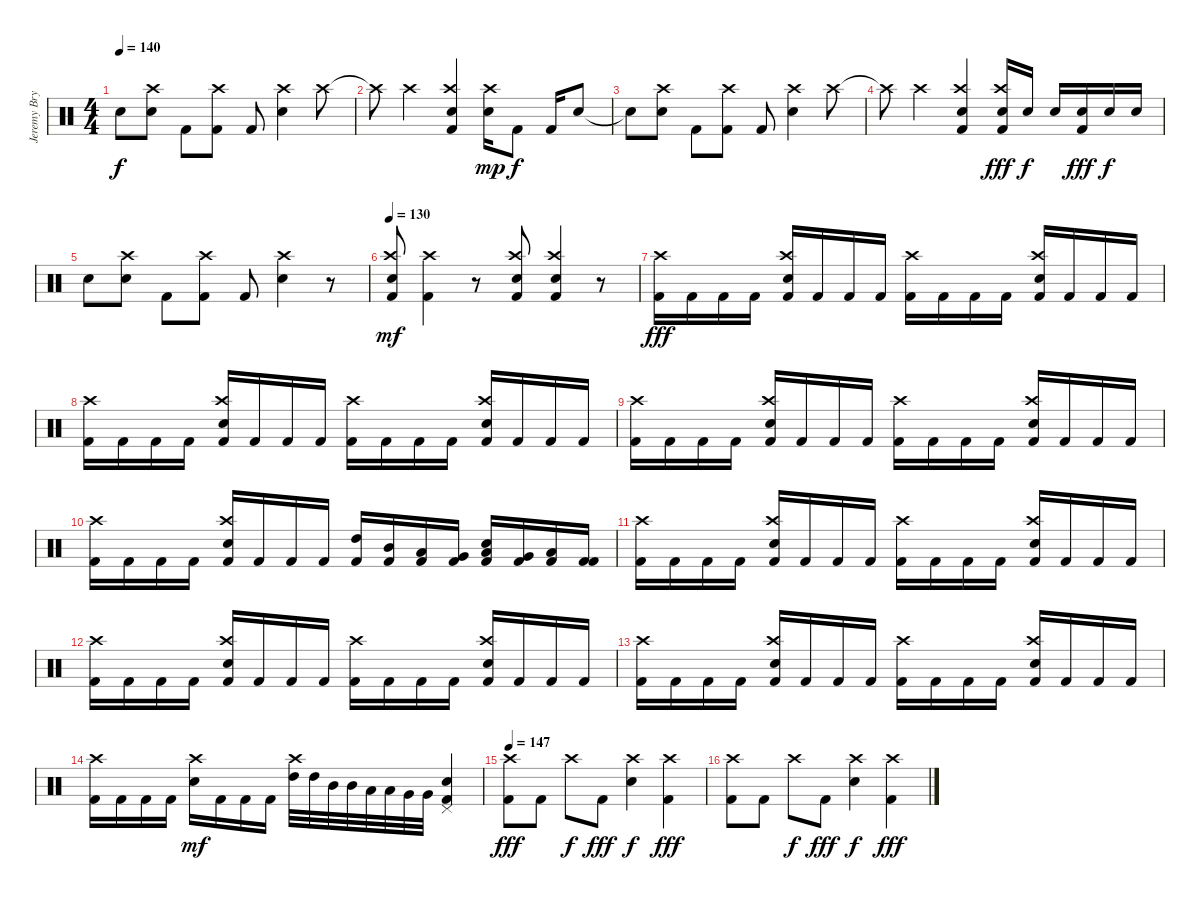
\track ("Jeremy Bryan - Drums" "Jeremy Bry") {instrument percussion}
\staff {score}
\articulation defaults
\ts (4 4)
\tempo 140
\clef neutral
\ks c "Electric Snare (hit)".8{dy f}
("Crash high (hit)" "Electric Snare (hit)").8 "Kick (hit) 2".8 ("Crash high (hit)" "Kick (hit) 2").8 "Kick (hit) 2".8 ("Crash high (hit)" "Electric Snare (hit)").4 "Crash high (hit)".8 |
"Crash high (hit)"{t}.8 "Crash high (hit)".4 ("Crash high (hit)" "Electric Snare (hit)" "Kick (hit) 2").4 ("Crash high (hit)" "Electric Snare (hit)").16{dy mp} "Kick (hit) 2".8{dy f} "Kick (hit) 2".16 "Electric Snare (hit)".8 |
"Electric Snare (hit)"{t}.8 ("Crash high (hit)" "Electric Snare (hit)").8 "Kick (hit) 2".8 ("Crash high (hit)" "Kick (hit) 2").8 "Kick (hit) 2".8 ("Crash high (hit)" "Electric Snare (hit)").4 "Crash high (hit)".8 |
"Crash high (hit)"{t}.8 "Crash high (hit)".4 ("Crash high (hit)" "Electric Snare (hit)" "Kick (hit) 2").4 ("Crash high (hit)" "Electric Snare (hit)" "Kick (hit) 2").16{dy fff} "Electric Snare (hit)".16{dy f} "Electric Snare (hit)".16 ("Electric Snare (hit)" "Kick (hit) 2").16{dy fff} "Electric Snare (hit)".16{dy f} "Electric Snare (hit)".16 |
"Electric Snare (hit)".8 ("Crash high (hit)" "Electric Snare (hit)").8 "Kick (hit) 2".8 ("Crash high (hit)" "Kick (hit) 2").8 "Kick (hit) 2".8 ("Crash high (hit)" "Electric Snare (hit)").4 r.8 |
\tempo 130
("Crash high (hit)" "Electric Snare (hit)" "Kick (hit) 2").8{dy mf} ("Crash high (hit)" "Kick (hit) 2").4 r.8 ("Crash high (hit)" "Electric Snare (hit)" "Kick (hit) 2").8 ("Crash high (hit)" "Electric Snare (hit)" "Kick (hit) 2").4 r.8 |
("Crash high (hit)" "Kick (hit) 2").16{dy fff} "Kick (hit) 2".16 "Kick (hit) 2".16 "Kick (hit) 2".16 ("Crash high (hit)" "Electric Snare (hit)" "Kick (hit) 2").16 "Kick (hit) 2".16 "Kick (hit) 2".16 "Kick (hit) 2".16 ("Crash high (hit)" "Kick (hit) 2").16 "Kick (hit) 2".16 "Kick (hit) 2".16 "Kick (hit) 2".16 ("Crash high (hit)" "Electric Snare (hit)" "Kick (hit) 2").16 "Kick (hit) 2".16 "Kick (hit) 2".16 "Kick (hit) 2".16 |
("Crash high (hit)" "Kick (hit) 2").16 "Kick (hit) 2".16 "Kick (hit) 2".16 "Kick (hit) 2".16 ("Crash high (hit)" "Electric Snare (hit)" "Kick (hit) 2").16 "Kick (hit) 2".16 "Kick (hit) 2".16 "Kick (hit) 2".16 ("Crash high (hit)" "Kick (hit) 2").16 "Kick (hit) 2".16 "Kick (hit) 2".16 "Kick (hit) 2".16 ("Crash high (hit)" "Electric Snare (hit)" "Kick (hit) 2").16 "Kick (hit) 2".16 "Kick (hit) 2".16 "Kick (hit) 2".16 |
("Crash high (hit)" "Kick (hit) 2").16 "Kick (hit) 2".16 "Kick (hit) 2".16 "Kick (hit) 2".16 ("Crash high (hit)" "Electric Snare (hit)" "Kick (hit) 2").16 "Kick (hit) 2".16 "Kick (hit) 2".16 "Kick (hit) 2".16 ("Crash high (hit)" "Kick (hit) 2").16 "Kick (hit) 2".16 "Kick (hit) 2".16 "Kick (hit) 2".16 ("Crash high (hit)" "Electric Snare (hit)" "Kick (hit) 2").16 "Kick (hit) 2".16 "Kick (hit) 2".16 "Kick (hit) 2".16 |
("Crash high (hit)" "Kick (hit) 2").16 "Kick (hit) 2".16 "Kick (hit) 2".16 "Kick (hit) 2".16 ("Crash high (hit)" "Electric Snare (hit)" "Kick (hit) 2").16 "Kick (hit) 2".16 "Kick (hit) 2".16 "Kick (hit) 2".16 ("High Tom (hit)" "Kick (hit) 2").16 ("Mid Tom (hit)" "Kick (hit) 2").16 ("Low Tom (hit)" "Kick (hit) 2").16 ("Very Low Tom (hit)" "Kick (hit) 2").16 ("Low Tom (hit)" "Electric Snare (hit)" "Kick (hit) 2").16 ("Very Low Tom (hit)" "Kick (hit) 2").16 ("Low Floor Tom (hit)" "Kick (hit) 2").16 ("Kick (hit) 2" "Kick (hit) 2").16 |
("Crash high (hit)" "Kick (hit) 2").16 "Kick (hit) 2".16 "Kick (hit) 2".16 "Kick (hit) 2".16 ("Crash high (hit)" "Electric Snare (hit)" "Kick (hit) 2").16 "Kick (hit) 2".16 "Kick (hit) 2".16 "Kick (hit) 2".16 ("Crash high (hit)" "Kick (hit) 2").16 "Kick (hit) 2".16 "Kick (hit) 2".16 "Kick (hit) 2".16 ("Crash high (hit)" "Electric Snare (hit)" "Kick (hit) 2").16 "Kick (hit) 2".16 "Kick (hit) 2".16 "Kick (hit) 2".16 |
("Crash high (hit)" "Kick (hit) 2").16 "Kick (hit) 2".16 "Kick (hit) 2".16 "Kick (hit) 2".16 ("Crash high (hit)" "Electric Snare (hit)" "Kick (hit) 2").16 "Kick (hit) 2".16 "Kick (hit) 2".16 "Kick (hit) 2".16 ("Crash high (hit)" "Kick (hit) 2").16 "Kick (hit) 2".16 "Kick (hit) 2".16 "Kick (hit) 2".16 ("Crash high (hit)" "Electric Snare (hit)" "Kick (hit) 2").16 "Kick (hit) 2".16 "Kick (hit) 2".16 "Kick (hit) 2".16 |
("Crash high (hit)" "Kick (hit) 2").16 "Kick (hit) 2".16 "Kick (hit) 2".16 "Kick (hit) 2".16 ("Crash high (hit)" "Electric Snare (hit)" "Kick (hit) 2").16 "Kick (hit) 2".16 "Kick (hit) 2".16 "Kick (hit) 2".16 ("Crash high (hit)" "Kick (hit) 2").16 "Kick (hit) 2".16 "Kick (hit) 2".16 "Kick (hit) 2".16 ("Crash high (hit)" "Electric Snare (hit)" "Kick (hit) 2").16 "Kick (hit) 2".16 "Kick (hit) 2".16 "Kick (hit) 2".16 |
("Crash high (hit)" "Kick (hit) 2").16 "Kick (hit) 2".16 "Kick (hit) 2".16 "Kick (hit) 2".16 ("Crash high (hit)" "Electric Snare (hit)").16{dy mf} "Kick (hit) 2".16 "Kick (hit) 2".16 "Kick (hit) 2".16 ("Crash high (hit)" "High Tom (hit)").32 "High Tom (hit)".32 "Mid Tom (hit)".32 "Mid Tom (hit)".32 "Low Tom (hit)".32 "Low Tom (hit)".32 "Very Low Tom (hit)".32 "Very Low Tom (hit)".32 ("Pedal Hi-Hat (hit)" "Electric Snare (hit)" "Kick (hit) 2").4 |
\tempo 147
("Crash high (hit)" "Kick (hit) 2").8{dy fff} "Kick (hit) 2".8 "Crash high (hit)".8{dy f} "Kick (hit) 2".8{dy fff} ("Crash high (hit)" "Electric Snare (hit)").4{dy f} ("Crash high (hit)" "Kick (hit) 2").4{dy fff} |
("Crash high (hit)" "Kick (hit) 2").8 "Kick (hit) 2".8 "Crash high (hit)".8{dy f} "Kick (hit) 2".8{dy fff} ("Crash high (hit)" "Electric Snare (hit)").4{dy f} ("Crash high (hit)" "Kick (hit) 2").4{dy fff}
